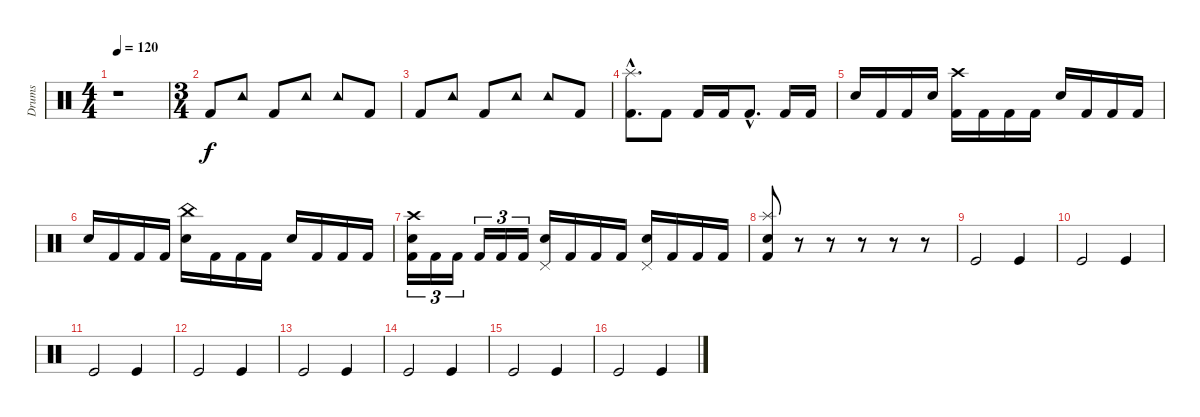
\track ("Drums" "Drums") {instrument percussion}
\staff {score}
\articulation defaults
\ts (4 4)
\tempo 120
\clef neutral
\ks c
r.1{dy f} |
\ts (3 4)
"Kick (hit) 2".8 "Tambourine (hit)".8 "Kick (hit) 2".8 "Tambourine (hit)".8 "Tambourine (hit)".8 "Kick (hit) 2".8 |
"Kick (hit) 2".8 "Tambourine (hit)".8 "Kick (hit) 2".8 "Tambourine (hit)".8 "Tambourine (hit)".8 "Kick (hit) 2".8 |
("Splash (hit)"{hac} "Kick (hit) 2"{hac}).8{d} "Kick (hit) 2".8 "Kick (hit) 2".16 "Kick (hit) 2".16 "Kick (hit) 2"{hac}.8{d} "Kick (hit) 2".16 "Kick (hit) 2".16 |
"Electric Snare (hit)".16 "Kick (hit) 2".16 "Kick (hit) 2".16 "Electric Snare (hit)".16 ("Crash high (hit)" "Kick (hit) 2").16 "Kick (hit) 2".16 "Kick (hit) 2".16 "Kick (hit) 2".16 "Electric Snare (hit)".16 "Kick (hit) 2".16 "Kick (hit) 2".16 "Kick (hit) 2".16 |
"Electric Snare (hit)".16 "Kick (hit) 2".16 "Kick (hit) 2".16 "Kick (hit) 2".16 ("China (hit)" "Electric Snare (hit)").16 "Kick (hit) 2".16 "Kick (hit) 2".16 "Kick (hit) 2".16 "Electric Snare (hit)".16 "Kick (hit) 2".16 "Kick (hit) 2".16 "Kick (hit) 2".16 |
("Crash high (hit)" "Electric Snare (hit)" "Kick (hit) 2").16{tu (3 2)} "Kick (hit) 2".16{tu (3 2)} "Kick (hit) 2".16{tu (3 2)} "Kick (hit) 2".16{tu (3 2)} "Kick (hit) 2".16{tu (3 2)} "Kick (hit) 2".16{tu (3 2)} ("Pedal Hi-Hat (hit)" "Electric Snare (hit)").16 "Kick (hit) 2".16 "Kick (hit) 2".16 "Kick (hit) 2".16 ("Pedal Hi-Hat (hit)" "Electric Snare (hit)").16 "Kick (hit) 2".16 "Kick (hit) 2".16 "Kick (hit) 2".16 |
("Splash (hit)" "Electric Snare (hit)" "Kick (hit) 2").8 r.8 r.8 r.8 r.8 r.8 |
"Kick (hit)".2{volume 8} "Kick (hit)".4 |
"Kick (hit)".2 "Kick (hit)".4 |
"Kick (hit)".2 "Kick (hit)".4 |
"Kick (hit)".2 "Kick (hit)".4 |
"Kick (hit)".2{volume 1} "Kick (hit)".4 |
"Kick (hit)".2 "Kick (hit)".4 |
"Kick (hit)".2 "Kick (hit)".4 |
"Kick (hit)".2 "Kick (hit)".4
